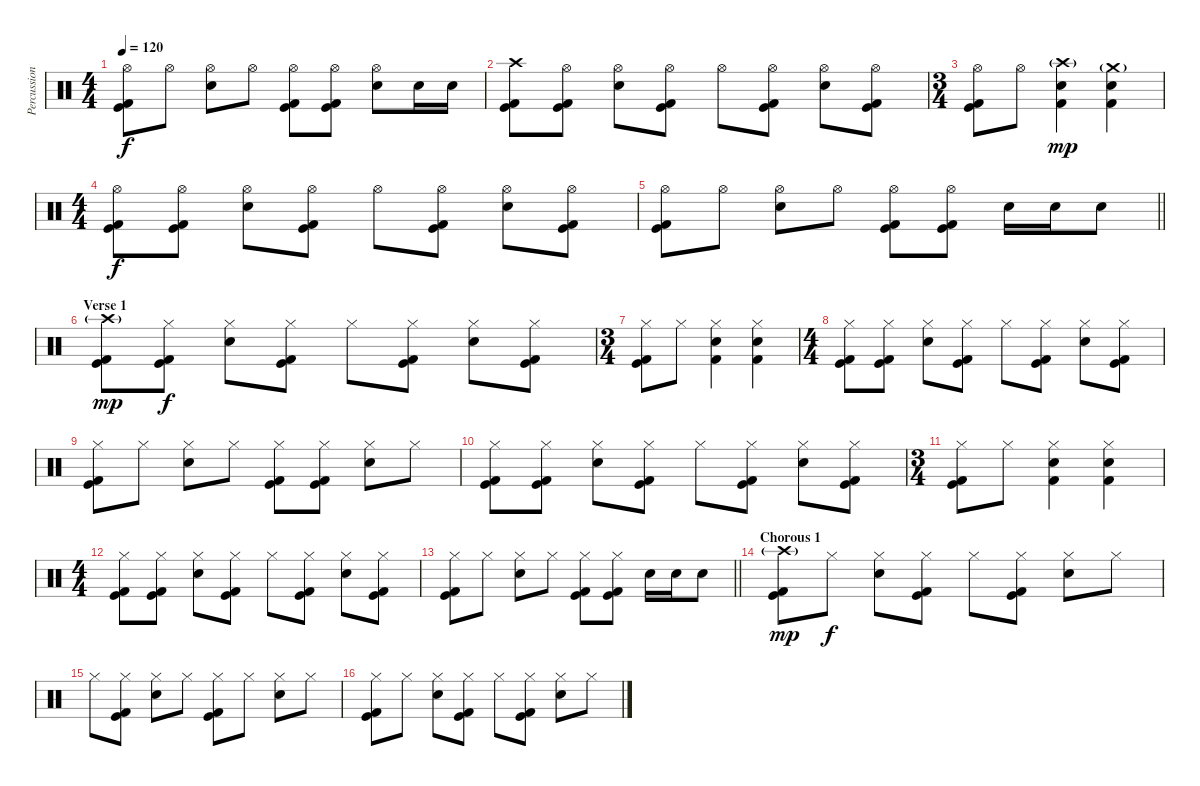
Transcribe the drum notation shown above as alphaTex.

\track ("Percussion" "Percussion") {instrument percussion}
\staff {score}
\articulation defaults
\ts (4 4)
\tempo 120
\clef neutral
\ks c
("Hi-Hat (open)" "Kick (hit)" "Kick (hit) 2").8{dy f} "Hi-Hat (open)".8 ("Hi-Hat (open)" "Electric Snare (hit)").8 "Hi-Hat (open)".8 ("Hi-Hat (open)" "Kick (hit)" "Kick (hit) 2").8 ("Hi-Hat (open)" "Kick (hit)" "Kick (hit) 2").8 ("Hi-Hat (open)" "Electric Snare (hit)").8 "Electric Snare (hit)".16 "Electric Snare (hit)".16 |
("Crash high (hit)" "Kick (hit)" "Kick (hit) 2").8 ("Hi-Hat (open)" "Kick (hit)" "Kick (hit) 2").8 ("Hi-Hat (open)" "Electric Snare (hit)").8 ("Hi-Hat (open)" "Kick (hit)" "Kick (hit) 2").8 "Hi-Hat (open)".8 ("Hi-Hat (open)" "Kick (hit)" "Kick (hit) 2").8 ("Hi-Hat (open)" "Electric Snare (hit)").8 ("Hi-Hat (open)" "Kick (hit)" "Kick (hit) 2").8 |
\ts (3 4)
("Hi-Hat (open)" "Kick (hit)" "Kick (hit) 2").8 "Hi-Hat (open)".8 ("Crash high (hit)"{g} "Electric Snare (hit)" "Kick (hit) 2").4{dy mp} ("Crash medium (hit)"{g} "Electric Snare (hit)" "Kick (hit) 2").4 |
\ts (4 4)
("Hi-Hat (open)" "Kick (hit)" "Kick (hit) 2").8{dy f} ("Hi-Hat (open)" "Kick (hit)" "Kick (hit) 2").8 ("Hi-Hat (open)" "Electric Snare (hit)").8 ("Hi-Hat (open)" "Kick (hit)" "Kick (hit) 2").8 "Hi-Hat (open)".8 ("Hi-Hat (open)" "Kick (hit)" "Kick (hit) 2").8 ("Hi-Hat (open)" "Electric Snare (hit)").8 ("Hi-Hat (open)" "Kick (hit)" "Kick (hit) 2").8 |
\barLineRight lightlight
("Hi-Hat (open)" "Kick (hit)" "Kick (hit) 2").8 "Hi-Hat (open)".8 ("Hi-Hat (open)" "Electric Snare (hit)").8 "Hi-Hat (open)".8 ("Hi-Hat (open)" "Kick (hit)" "Kick (hit) 2").8 ("Hi-Hat (open)" "Kick (hit)" "Kick (hit) 2").8 "Electric Snare (hit)".16 "Electric Snare (hit)".16 "Electric Snare (hit)".8 |
\section ("" "Verse 1")
("Crash high (hit)"{g} "Kick (hit)" "Kick (hit) 2").8{dy mp} ("Hi-Hat (closed)" "Kick (hit)" "Kick (hit) 2").8{dy f} ("Hi-Hat (closed)" "Electric Snare (hit)").8 ("Hi-Hat (closed)" "Kick (hit)" "Kick (hit) 2").8 "Hi-Hat (closed)".8 ("Hi-Hat (closed)" "Kick (hit)" "Kick (hit) 2").8 ("Hi-Hat (closed)" "Electric Snare (hit)").8 ("Hi-Hat (closed)" "Kick (hit)" "Kick (hit) 2").8 |
\ts (3 4)
("Hi-Hat (closed)" "Kick (hit)" "Kick (hit) 2").8 "Hi-Hat (closed)".8 ("Hi-Hat (closed)" "Electric Snare (hit)" "Kick (hit) 2").4 ("Hi-Hat (closed)" "Electric Snare (hit)" "Kick (hit) 2").4 |
\ts (4 4)
("Hi-Hat (closed)" "Kick (hit)" "Kick (hit) 2").8 ("Hi-Hat (closed)" "Kick (hit)" "Kick (hit) 2").8 ("Hi-Hat (closed)" "Electric Snare (hit)").8 ("Hi-Hat (closed)" "Kick (hit)" "Kick (hit) 2").8 "Hi-Hat (closed)".8 ("Hi-Hat (closed)" "Kick (hit)" "Kick (hit) 2").8 ("Hi-Hat (closed)" "Electric Snare (hit)").8 ("Hi-Hat (closed)" "Kick (hit)" "Kick (hit) 2").8 |
("Hi-Hat (closed)" "Kick (hit)" "Kick (hit) 2").8 "Hi-Hat (closed)".8 ("Hi-Hat (closed)" "Electric Snare (hit)").8 "Hi-Hat (closed)".8 ("Hi-Hat (closed)" "Kick (hit)" "Kick (hit) 2").8 ("Hi-Hat (closed)" "Kick (hit)" "Kick (hit) 2").8 ("Hi-Hat (closed)" "Electric Snare (hit)").8 "Hi-Hat (closed)".8 |
("Hi-Hat (closed)" "Kick (hit)" "Kick (hit) 2").8 ("Hi-Hat (closed)" "Kick (hit)" "Kick (hit) 2").8 ("Hi-Hat (closed)" "Electric Snare (hit)").8 ("Hi-Hat (closed)" "Kick (hit)" "Kick (hit) 2").8 "Hi-Hat (closed)".8 ("Hi-Hat (closed)" "Kick (hit)" "Kick (hit) 2").8 ("Hi-Hat (closed)" "Electric Snare (hit)").8 ("Hi-Hat (closed)" "Kick (hit)" "Kick (hit) 2").8 |
\ts (3 4)
("Hi-Hat (closed)" "Kick (hit)" "Kick (hit) 2").8 "Hi-Hat (closed)".8 ("Hi-Hat (closed)" "Electric Snare (hit)" "Kick (hit) 2").4 ("Hi-Hat (closed)" "Electric Snare (hit)" "Kick (hit) 2").4 |
\ts (4 4)
("Hi-Hat (closed)" "Kick (hit)" "Kick (hit) 2").8 ("Hi-Hat (closed)" "Kick (hit)" "Kick (hit) 2").8 ("Hi-Hat (closed)" "Electric Snare (hit)").8 ("Hi-Hat (closed)" "Kick (hit)" "Kick (hit) 2").8 "Hi-Hat (closed)".8 ("Hi-Hat (closed)" "Kick (hit)" "Kick (hit) 2").8 ("Hi-Hat (closed)" "Electric Snare (hit)").8 ("Hi-Hat (closed)" "Kick (hit)" "Kick (hit) 2").8 |
\barLineRight lightlight
("Hi-Hat (closed)" "Kick (hit)" "Kick (hit) 2").8 "Hi-Hat (closed)".8 ("Hi-Hat (closed)" "Electric Snare (hit)").8 "Hi-Hat (closed)".8 ("Hi-Hat (closed)" "Kick (hit)" "Kick (hit) 2").8 ("Hi-Hat (closed)" "Kick (hit)" "Kick (hit) 2").8 "Electric Snare (hit)".16 "Electric Snare (hit)".16 "Electric Snare (hit)".8 |
\section ("" "Chorous 1")
("Crash high (hit)"{g} "Kick (hit)" "Kick (hit) 2").8{dy mp} "Hi-Hat (closed)".8{dy f} ("Hi-Hat (closed)" "Electric Snare (hit)").8 ("Hi-Hat (closed)" "Kick (hit)" "Kick (hit) 2").8 "Hi-Hat (closed)".8 ("Hi-Hat (closed)" "Kick (hit)" "Kick (hit) 2").8 ("Hi-Hat (closed)" "Electric Snare (hit)").8 "Hi-Hat (closed)".8 |
"Hi-Hat (closed)".8 ("Hi-Hat (closed)" "Kick (hit)" "Kick (hit) 2").8 ("Hi-Hat (closed)" "Electric Snare (hit)").8 "Hi-Hat (closed)".8 ("Hi-Hat (closed)" "Kick (hit)" "Kick (hit) 2").8 "Hi-Hat (closed)".8 ("Hi-Hat (closed)" "Electric Snare (hit)").8 "Hi-Hat (closed)".8 |
("Hi-Hat (closed)" "Kick (hit)" "Kick (hit) 2").8 "Hi-Hat (closed)".8 ("Hi-Hat (closed)" "Electric Snare (hit)").8 ("Hi-Hat (closed)" "Kick (hit)" "Kick (hit) 2").8 "Hi-Hat (closed)".8 ("Hi-Hat (closed)" "Kick (hit)" "Kick (hit) 2").8 ("Hi-Hat (closed)" "Electric Snare (hit)").8 "Hi-Hat (closed)".8
